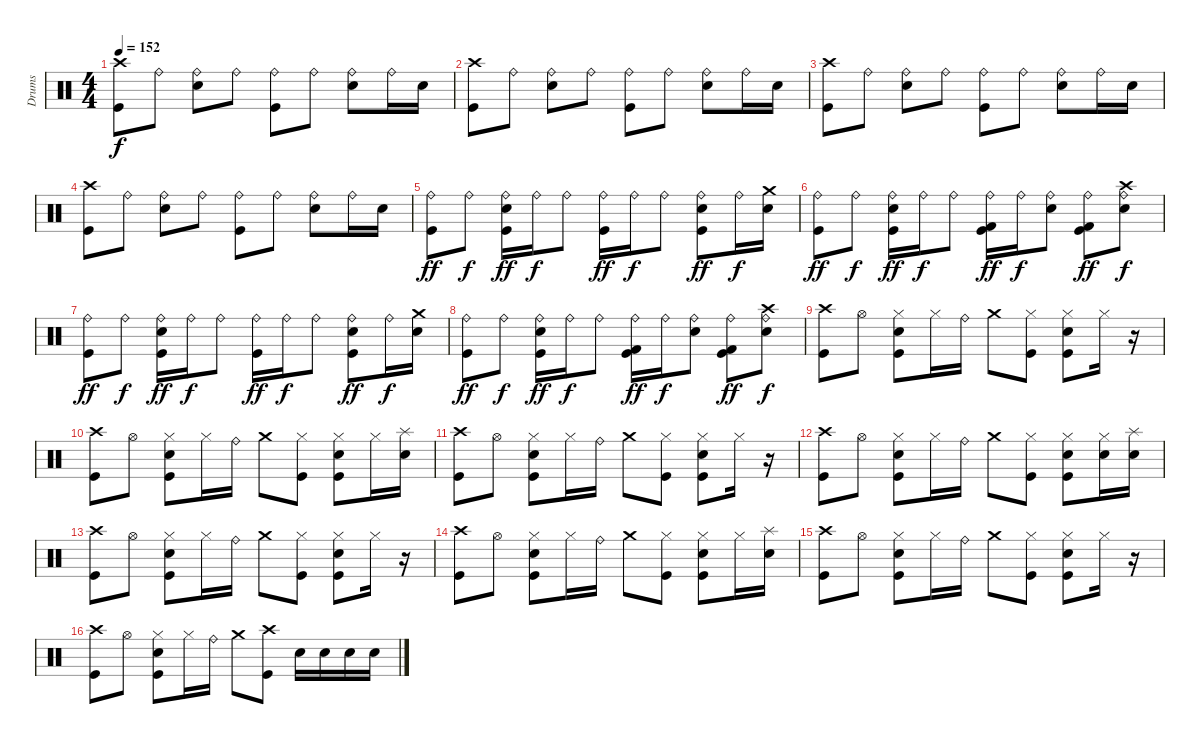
\track ("Drums" "Drums") {instrument percussion}
\staff {score}
\articulation defaults
\ts (4 4)
\tempo 152
\clef neutral
\ks c
("Crash high (hit)" "Kick (hit)").8{dy f} "Ride (bell)".8 ("Ride (bell)" "Electric Snare (hit)").8 "Ride (bell)".8 ("Ride (bell)" "Kick (hit)").8 "Ride (bell)".8 ("Ride (bell)" "Electric Snare (hit)").8 "Ride (bell)".16 "Electric Snare (hit)".16 |
("Crash high (hit)" "Kick (hit)").8 "Ride (bell)".8 ("Ride (bell)" "Electric Snare (hit)").8 "Ride (bell)".8 ("Ride (bell)" "Kick (hit)").8 "Ride (bell)".8 ("Ride (bell)" "Electric Snare (hit)").8 "Ride (bell)".16 "Electric Snare (hit)".16 |
("Crash high (hit)" "Kick (hit)").8 "Ride (bell)".8 ("Ride (bell)" "Electric Snare (hit)").8 "Ride (bell)".8 ("Ride (bell)" "Kick (hit)").8 "Ride (bell)".8 ("Ride (bell)" "Electric Snare (hit)").8 "Ride (bell)".16 "Electric Snare (hit)".16 |
("Crash high (hit)" "Kick (hit)").8 "Ride (bell)".8 ("Ride (bell)" "Electric Snare (hit)").8 "Ride (bell)".8 ("Ride (bell)" "Kick (hit)").8 "Ride (bell)".8 ("Ride (bell)" "Electric Snare (hit)").8 "Ride (bell)".16 "Electric Snare (hit)".16 |
("Ride (bell)" "Kick (hit)").8{dy ff} "Ride (bell)".8{dy f} ("Ride (bell)" "Electric Snare (hit)" "Kick (hit)").16{dy ff} "Ride (bell)".16{dy f} "Ride (bell)".8 ("Ride (bell)" "Kick (hit)").16{dy ff} "Ride (bell)".16{dy f} "Ride (bell)".8 ("Ride (bell)" "Electric Snare (hit)" "Kick (hit)").8{dy ff} "Ride (bell)".16{dy f} ("Crash medium (hit)" "Electric Snare (hit)").16 |
("Ride (bell)" "Kick (hit)").8{dy ff} "Ride (bell)".8{dy f} ("Ride (bell)" "Electric Snare (hit)" "Kick (hit)").16{dy ff} "Ride (bell)".16{dy f} "Ride (bell)".8 ("Ride (bell)" "Kick (hit) 2" "Kick (hit)").16{dy ff} "Ride (bell)".16{dy f} ("Ride (bell)" "Electric Snare (hit)").8 ("Ride (bell)" "Kick (hit) 2" "Kick (hit)").8{dy ff} ("Ride (bell)" "Crash high (hit)" "Electric Snare (hit)").8{dy f} |
("Ride (bell)" "Kick (hit)").8{dy ff} "Ride (bell)".8{dy f} ("Ride (bell)" "Electric Snare (hit)" "Kick (hit)").16{dy ff} "Ride (bell)".16{dy f} "Ride (bell)".8 ("Ride (bell)" "Kick (hit)").16{dy ff} "Ride (bell)".16{dy f} "Ride (bell)".8 ("Ride (bell)" "Electric Snare (hit)" "Kick (hit)").8{dy ff} "Ride (bell)".16{dy f} ("Crash medium (hit)" "Electric Snare (hit)").16 |
("Ride (bell)" "Kick (hit)").8{dy ff} "Ride (bell)".8{dy f} ("Ride (bell)" "Electric Snare (hit)" "Kick (hit)").16{dy ff} "Ride (bell)".16{dy f} "Ride (bell)".8 ("Ride (bell)" "Kick (hit) 2" "Kick (hit)").16{dy ff} "Ride (bell)".16{dy f} ("Ride (bell)" "Electric Snare (hit)").8 ("Ride (bell)" "Kick (hit) 2" "Kick (hit)").8{dy ff} ("Ride (bell)" "Crash high (hit)" "Electric Snare (hit)").8{dy f} |
("Crash high (hit)" "Kick (hit)").8 "Hi-Hat (open)".8 ("Hi-Hat (closed)" "Electric Snare (hit)" "Kick (hit)").8 "Hi-Hat (closed)".16 "Ride (bell)".16 "Crash medium (hit)".8 ("Hi-Hat (closed)" "Kick (hit)").8 ("Hi-Hat (closed)" "Electric Snare (hit)" "Kick (hit)").8 "Hi-Hat (closed)".16 r.16 |
("Crash high (hit)" "Kick (hit)").8 "Hi-Hat (open)".8 ("Hi-Hat (closed)" "Electric Snare (hit)" "Kick (hit)").8 "Hi-Hat (closed)".16 "Ride (bell)".16 "Crash medium (hit)".8 ("Hi-Hat (closed)" "Kick (hit)").8 ("Hi-Hat (closed)" "Electric Snare (hit)" "Kick (hit)").8 "Hi-Hat (closed)".16 ("Splash (hit)" "Electric Snare (hit)").16 |
("Crash high (hit)" "Kick (hit)").8 "Hi-Hat (open)".8 ("Hi-Hat (closed)" "Electric Snare (hit)" "Kick (hit)").8 "Hi-Hat (closed)".16 "Ride (bell)".16 "Crash medium (hit)".8 ("Hi-Hat (closed)" "Kick (hit)").8 ("Hi-Hat (closed)" "Electric Snare (hit)" "Kick (hit)").8 "Hi-Hat (closed)".16 r.16 |
("Crash high (hit)" "Kick (hit)").8 "Hi-Hat (open)".8 ("Hi-Hat (closed)" "Electric Snare (hit)" "Kick (hit)").8 "Hi-Hat (closed)".16 "Ride (bell)".16 "Crash medium (hit)".8 ("Hi-Hat (closed)" "Kick (hit)").8 ("Hi-Hat (closed)" "Electric Snare (hit)" "Kick (hit)").8 ("Hi-Hat (closed)" "Electric Snare (hit)").16 ("Splash (hit)" "Electric Snare (hit)").16 |
("Crash high (hit)" "Kick (hit)").8 "Hi-Hat (open)".8 ("Hi-Hat (closed)" "Electric Snare (hit)" "Kick (hit)").8 "Hi-Hat (closed)".16 "Ride (bell)".16 "Crash medium (hit)".8 ("Hi-Hat (closed)" "Kick (hit)").8 ("Hi-Hat (closed)" "Electric Snare (hit)" "Kick (hit)").8 "Hi-Hat (closed)".16 r.16 |
("Crash high (hit)" "Kick (hit)").8 "Hi-Hat (open)".8 ("Hi-Hat (closed)" "Electric Snare (hit)" "Kick (hit)").8 "Hi-Hat (closed)".16 "Ride (bell)".16 "Crash medium (hit)".8 ("Hi-Hat (closed)" "Kick (hit)").8 ("Hi-Hat (closed)" "Electric Snare (hit)" "Kick (hit)").8 "Hi-Hat (closed)".16 ("Splash (hit)" "Electric Snare (hit)").16 |
("Crash high (hit)" "Kick (hit)").8 "Hi-Hat (open)".8 ("Hi-Hat (closed)" "Electric Snare (hit)" "Kick (hit)").8 "Hi-Hat (closed)".16 "Ride (bell)".16 "Crash medium (hit)".8 ("Hi-Hat (closed)" "Kick (hit)").8 ("Hi-Hat (closed)" "Electric Snare (hit)" "Kick (hit)").8 "Hi-Hat (closed)".16 r.16 |
("Crash high (hit)" "Kick (hit)").8 "Hi-Hat (open)".8 ("Hi-Hat (closed)" "Electric Snare (hit)" "Kick (hit)").8 "Hi-Hat (closed)".16 "Ride (bell)".16 "Crash medium (hit)".8 ("Crash high (hit)" "Kick (hit)").8 "Electric Snare (hit)".16 "Electric Snare (hit)".16 "Electric Snare (hit)".16 "Electric Snare (hit)".16
